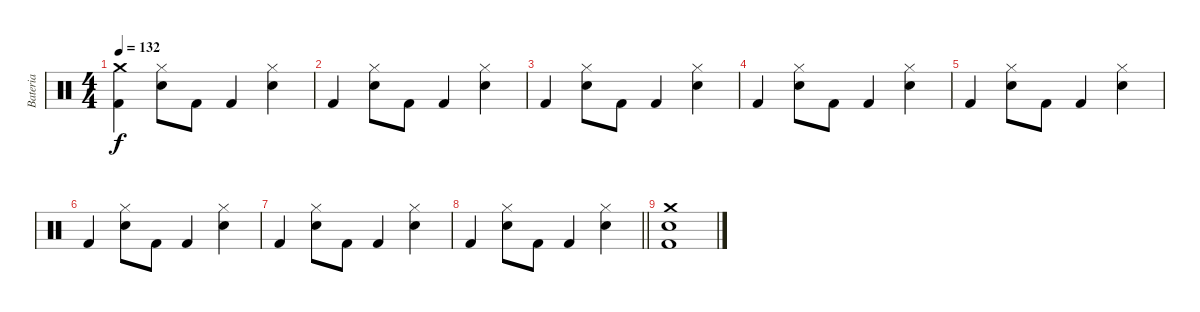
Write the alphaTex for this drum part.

\track ("Bateria" "Bateria") {instrument percussion}
\staff {score}
\articulation defaults
\ts (4 4)
\section ("" "")
\tempo 132
\clef neutral
\ks c
("Kick (hit) 2" "Crash medium (hit)").4{dy f} ("Electric Snare (hit)" "Hi-Hat (closed)").8 "Kick (hit) 2".8 "Kick (hit) 2".4 ("Electric Snare (hit)" "Hi-Hat (closed)").4 |
"Kick (hit) 2".4 ("Electric Snare (hit)" "Hi-Hat (closed)").8 "Kick (hit) 2".8 "Kick (hit) 2".4 ("Electric Snare (hit)" "Hi-Hat (closed)").4 |
"Kick (hit) 2".4 ("Electric Snare (hit)" "Hi-Hat (closed)").8 "Kick (hit) 2".8 "Kick (hit) 2".4 ("Electric Snare (hit)" "Hi-Hat (closed)").4 |
"Kick (hit) 2".4 ("Electric Snare (hit)" "Hi-Hat (closed)").8 "Kick (hit) 2".8 "Kick (hit) 2".4 ("Electric Snare (hit)" "Hi-Hat (closed)").4 |
"Kick (hit) 2".4 ("Electric Snare (hit)" "Hi-Hat (closed)").8 "Kick (hit) 2".8 "Kick (hit) 2".4 ("Electric Snare (hit)" "Hi-Hat (closed)").4 |
"Kick (hit) 2".4 ("Electric Snare (hit)" "Hi-Hat (closed)").8 "Kick (hit) 2".8 "Kick (hit) 2".4 ("Electric Snare (hit)" "Hi-Hat (closed)").4 |
"Kick (hit) 2".4 ("Electric Snare (hit)" "Hi-Hat (closed)").8 "Kick (hit) 2".8 "Kick (hit) 2".4 ("Electric Snare (hit)" "Hi-Hat (closed)").4 |
\barLineRight lightlight "Kick (hit) 2".4
("Electric Snare (hit)" "Hi-Hat (closed)").8 "Kick (hit) 2".8 "Kick (hit) 2".4 ("Electric Snare (hit)" "Hi-Hat (closed)").4 |
("Electric Snare (hit)" "Kick (hit) 2" "Crash medium (hit)").1
